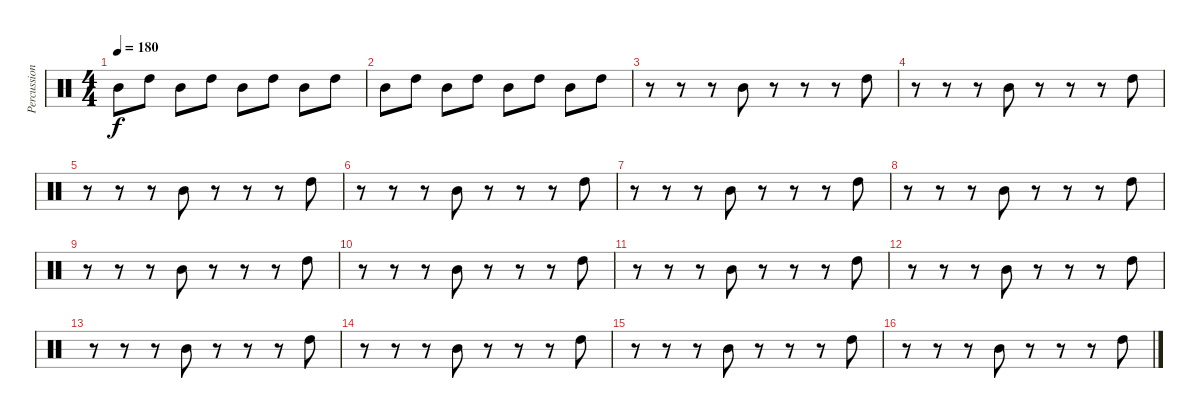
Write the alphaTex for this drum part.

\track ("Percussions" "Percussion") {instrument percussion}
\staff {score}
\articulation defaults
\ts (4 4)
\tempo 180
\clef neutral
\ks c "Mid Tom (hit)".8{dy f} "High Tom (hit)".8 "Mid Tom (hit)".8 "High Tom (hit)".8 "Mid Tom (hit)".8 "High Tom (hit)".8 "Mid Tom (hit)".8 "High Tom (hit)".8
|
"Mid Tom (hit)".8 "High Tom (hit)".8 "Mid Tom (hit)".8 "High Tom (hit)".8 "Mid Tom (hit)".8 "High Tom (hit)".8 "Mid Tom (hit)".8 "High Tom (hit)".8 |
r.8 r.8 r.8 "Mid Tom (hit)".8 r.8 r.8 r.8 "High Tom (hit)".8 |
r.8 r.8 r.8 "Mid Tom (hit)".8 r.8 r.8 r.8 "High Tom (hit)".8 |
r.8 r.8 r.8 "Mid Tom (hit)".8 r.8 r.8 r.8 "High Tom (hit)".8 |
r.8 r.8 r.8 "Mid Tom (hit)".8 r.8 r.8 r.8 "High Tom (hit)".8 |
r.8 r.8 r.8 "Mid Tom (hit)".8 r.8 r.8 r.8 "High Tom (hit)".8 |
r.8 r.8 r.8 "Mid Tom (hit)".8 r.8 r.8 r.8 "High Tom (hit)".8 |
r.8 r.8 r.8 "Mid Tom (hit)".8 r.8 r.8 r.8 "High Tom (hit)".8 |
r.8 r.8 r.8 "Mid Tom (hit)".8 r.8 r.8 r.8 "High Tom (hit)".8 |
r.8 r.8 r.8 "Mid Tom (hit)".8 r.8 r.8 r.8 "High Tom (hit)".8 |
r.8 r.8 r.8 "Mid Tom (hit)".8 r.8 r.8 r.8 "High Tom (hit)".8 |
r.8 r.8 r.8 "Mid Tom (hit)".8 r.8 r.8 r.8 "High Tom (hit)".8 |
r.8 r.8 r.8 "Mid Tom (hit)".8 r.8 r.8 r.8 "High Tom (hit)".8 |
r.8 r.8 r.8 "Mid Tom (hit)".8 r.8 r.8 r.8 "High Tom (hit)".8 |
r.8 r.8 r.8 "Mid Tom (hit)".8 r.8 r.8 r.8 "High Tom (hit)".8
